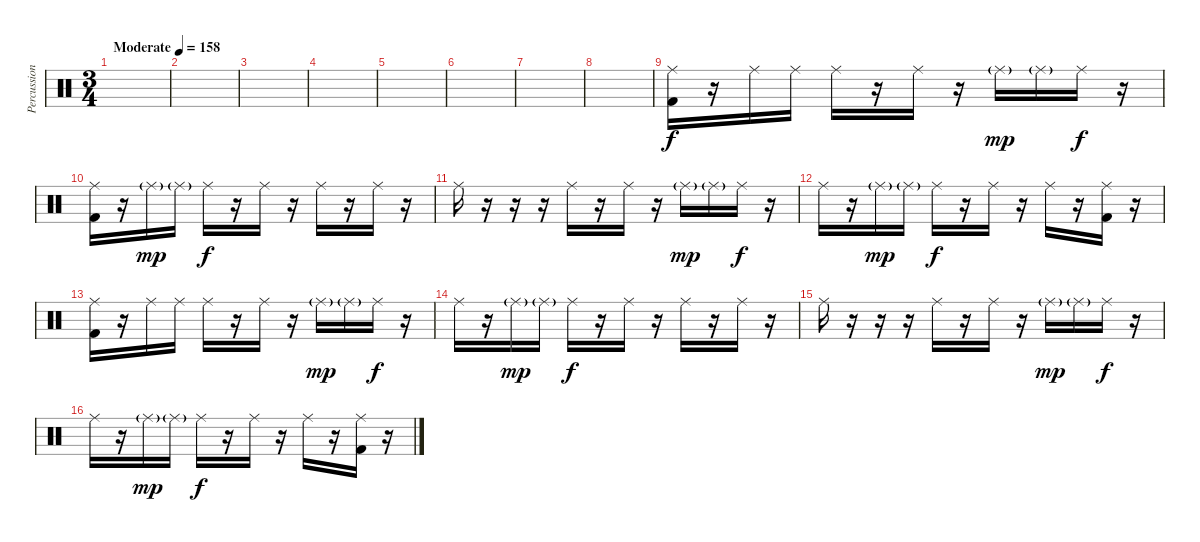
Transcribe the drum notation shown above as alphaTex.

\track ("Percussion" "Percussion") {instrument percussion}
\staff {score}
\articulation defaults
\ts (3 4)
\tempo (158 "Moderate")
\clef neutral
\ks c
|
|
|
|
|
|
|
|
("Ride (middle)" "Kick (hit) 2").16 r.16 "Ride (middle)".16 "Ride (middle)".16 "Ride (middle)".16 r.16 "Ride (middle)".16 r.16 "Ride (middle)"{g}.16{dy mp} "Ride (middle)"{g}.16 "Ride (middle)".16{dy f} r.16 |
("Ride (middle)" "Kick (hit) 2").16 r.16 "Ride (middle)"{g}.16{dy mp} "Ride (middle)"{g}.16 "Ride (middle)".16{dy f} r.16 "Ride (middle)".16 r.16 "Ride (middle)".16 r.16 "Ride (middle)".16 r.16 |
"Ride (middle)".16 r.16 r.16 r.16 "Ride (middle)".16 r.16 "Ride (middle)".16 r.16 "Ride (middle)"{g}.16{dy mp} "Ride (middle)"{g}.16 "Ride (middle)".16{dy f} r.16 |
"Ride (middle)".16 r.16 "Ride (middle)"{g}.16{dy mp} "Ride (middle)"{g}.16 "Ride (middle)".16{dy f} r.16 "Ride (middle)".16 r.16 "Ride (middle)".16 r.16 ("Ride (middle)" "Kick (hit) 2").16 r.16 |
("Ride (middle)" "Kick (hit) 2").16 r.16 "Ride (middle)".16 "Ride (middle)".16 "Ride (middle)".16 r.16 "Ride (middle)".16 r.16 "Ride (middle)"{g}.16{dy mp} "Ride (middle)"{g}.16 "Ride (middle)".16{dy f} r.16 |
"Ride (middle)".16 r.16 "Ride (middle)"{g}.16{dy mp} "Ride (middle)"{g}.16 "Ride (middle)".16{dy f} r.16 "Ride (middle)".16 r.16 "Ride (middle)".16 r.16 "Ride (middle)".16 r.16 |
"Ride (middle)".16 r.16 r.16 r.16 "Ride (middle)".16 r.16 "Ride (middle)".16 r.16 "Ride (middle)"{g}.16{dy mp} "Ride (middle)"{g}.16 "Ride (middle)".16{dy f} r.16 |
"Ride (middle)".16 r.16 "Ride (middle)"{g}.16{dy mp} "Ride (middle)"{g}.16 "Ride (middle)".16{dy f} r.16 "Ride (middle)".16 r.16 "Ride (middle)".16 r.16 ("Ride (middle)" "Kick (hit) 2").16 r.16
